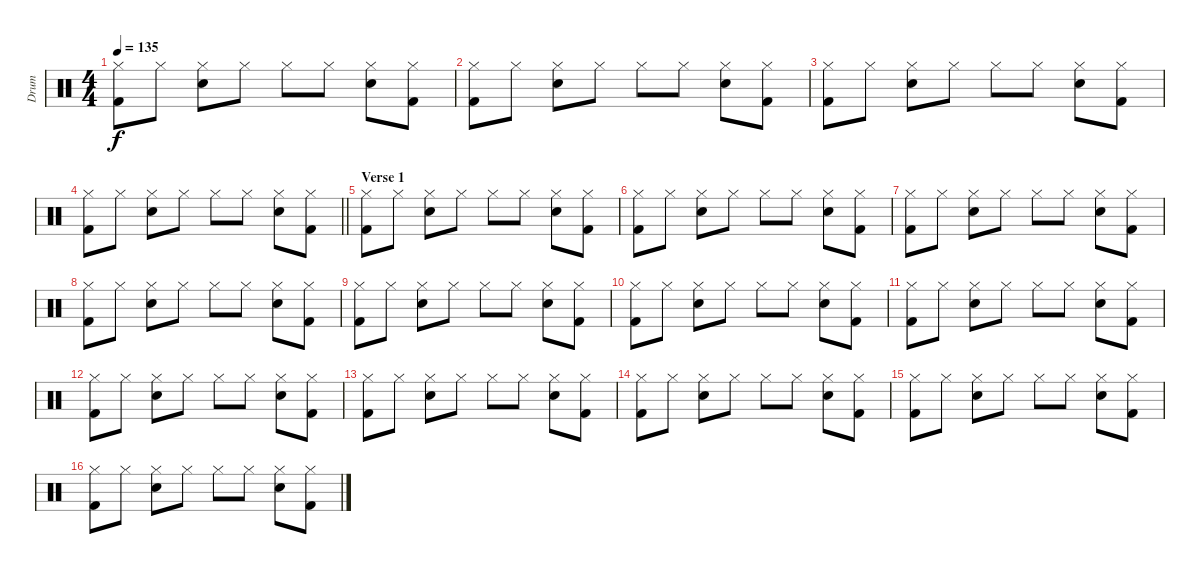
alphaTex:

\track ("Drum" "Drum") {instrument percussion}
\staff {score}
\articulation defaults
\ts (4 4)
\tempo 135
\clef neutral
\ks c
("Hi-Hat (closed)" "Kick (hit) 2").8{dy f} "Hi-Hat (closed)".8 ("Snare (hit) 2" "Hi-Hat (closed)").8 "Hi-Hat (closed)".8 "Hi-Hat (closed)".8 "Hi-Hat (closed)".8 ("Snare (hit) 2" "Hi-Hat (closed)").8 ("Hi-Hat (closed)" "Kick (hit) 2").8 |
("Hi-Hat (closed)" "Kick (hit) 2").8 "Hi-Hat (closed)".8 ("Snare (hit) 2" "Hi-Hat (closed)").8 "Hi-Hat (closed)".8 "Hi-Hat (closed)".8 "Hi-Hat (closed)".8 ("Snare (hit) 2" "Hi-Hat (closed)").8 ("Hi-Hat (closed)" "Kick (hit) 2").8 |
("Hi-Hat (closed)" "Kick (hit) 2").8 "Hi-Hat (closed)".8 ("Snare (hit) 2" "Hi-Hat (closed)").8 "Hi-Hat (closed)".8 "Hi-Hat (closed)".8 "Hi-Hat (closed)".8 ("Snare (hit) 2" "Hi-Hat (closed)").8 ("Hi-Hat (closed)" "Kick (hit) 2").8 |
\barLineRight lightlight
("Hi-Hat (closed)" "Kick (hit) 2").8 "Hi-Hat (closed)".8 ("Snare (hit) 2" "Hi-Hat (closed)").8 "Hi-Hat (closed)".8 "Hi-Hat (closed)".8 "Hi-Hat (closed)".8 ("Snare (hit) 2" "Hi-Hat (closed)").8 ("Hi-Hat (closed)" "Kick (hit) 2").8 |
\section ("" "Verse 1")
("Hi-Hat (closed)" "Kick (hit) 2").8 "Hi-Hat (closed)".8 ("Snare (hit) 2" "Hi-Hat (closed)").8 "Hi-Hat (closed)".8 "Hi-Hat (closed)".8 "Hi-Hat (closed)".8 ("Snare (hit) 2" "Hi-Hat (closed)").8 ("Hi-Hat (closed)" "Kick (hit) 2").8 |
("Hi-Hat (closed)" "Kick (hit) 2").8 "Hi-Hat (closed)".8 ("Snare (hit) 2" "Hi-Hat (closed)").8 "Hi-Hat (closed)".8 "Hi-Hat (closed)".8 "Hi-Hat (closed)".8 ("Snare (hit) 2" "Hi-Hat (closed)").8 ("Hi-Hat (closed)" "Kick (hit) 2").8 |
("Hi-Hat (closed)" "Kick (hit) 2").8 "Hi-Hat (closed)".8 ("Snare (hit) 2" "Hi-Hat (closed)").8 "Hi-Hat (closed)".8 "Hi-Hat (closed)".8 "Hi-Hat (closed)".8 ("Snare (hit) 2" "Hi-Hat (closed)").8 ("Hi-Hat (closed)" "Kick (hit) 2").8 |
("Hi-Hat (closed)" "Kick (hit) 2").8 "Hi-Hat (closed)".8 ("Snare (hit) 2" "Hi-Hat (closed)").8 "Hi-Hat (closed)".8 "Hi-Hat (closed)".8 "Hi-Hat (closed)".8 ("Snare (hit) 2" "Hi-Hat (closed)").8 ("Hi-Hat (closed)" "Kick (hit) 2").8 |
("Hi-Hat (closed)" "Kick (hit) 2").8 "Hi-Hat (closed)".8 ("Snare (hit) 2" "Hi-Hat (closed)").8 "Hi-Hat (closed)".8 "Hi-Hat (closed)".8 "Hi-Hat (closed)".8 ("Snare (hit) 2" "Hi-Hat (closed)").8 ("Hi-Hat (closed)" "Kick (hit) 2").8 |
("Hi-Hat (closed)" "Kick (hit) 2").8 "Hi-Hat (closed)".8 ("Snare (hit) 2" "Hi-Hat (closed)").8 "Hi-Hat (closed)".8 "Hi-Hat (closed)".8 "Hi-Hat (closed)".8 ("Snare (hit) 2" "Hi-Hat (closed)").8 ("Hi-Hat (closed)" "Kick (hit) 2").8 |
("Hi-Hat (closed)" "Kick (hit) 2").8 "Hi-Hat (closed)".8 ("Snare (hit) 2" "Hi-Hat (closed)").8 "Hi-Hat (closed)".8 "Hi-Hat (closed)".8 "Hi-Hat (closed)".8 ("Snare (hit) 2" "Hi-Hat (closed)").8 ("Hi-Hat (closed)" "Kick (hit) 2").8 |
("Hi-Hat (closed)" "Kick (hit) 2").8 "Hi-Hat (closed)".8 ("Snare (hit) 2" "Hi-Hat (closed)").8 "Hi-Hat (closed)".8 "Hi-Hat (closed)".8 "Hi-Hat (closed)".8 ("Snare (hit) 2" "Hi-Hat (closed)").8 ("Hi-Hat (closed)" "Kick (hit) 2").8 |
("Hi-Hat (closed)" "Kick (hit) 2").8 "Hi-Hat (closed)".8 ("Snare (hit) 2" "Hi-Hat (closed)").8 "Hi-Hat (closed)".8 "Hi-Hat (closed)".8 "Hi-Hat (closed)".8 ("Snare (hit) 2" "Hi-Hat (closed)").8 ("Hi-Hat (closed)" "Kick (hit) 2").8 |
("Hi-Hat (closed)" "Kick (hit) 2").8 "Hi-Hat (closed)".8 ("Snare (hit) 2" "Hi-Hat (closed)").8 "Hi-Hat (closed)".8 "Hi-Hat (closed)".8 "Hi-Hat (closed)".8 ("Snare (hit) 2" "Hi-Hat (closed)").8 ("Hi-Hat (closed)" "Kick (hit) 2").8 |
("Hi-Hat (closed)" "Kick (hit) 2").8 "Hi-Hat (closed)".8 ("Snare (hit) 2" "Hi-Hat (closed)").8 "Hi-Hat (closed)".8 "Hi-Hat (closed)".8 "Hi-Hat (closed)".8 ("Snare (hit) 2" "Hi-Hat (closed)").8 ("Hi-Hat (closed)" "Kick (hit) 2").8 |
("Hi-Hat (closed)" "Kick (hit) 2").8 "Hi-Hat (closed)".8 ("Snare (hit) 2" "Hi-Hat (closed)").8 "Hi-Hat (closed)".8 "Hi-Hat (closed)".8 "Hi-Hat (closed)".8 ("Snare (hit) 2" "Hi-Hat (closed)").8 ("Hi-Hat (closed)" "Kick (hit) 2").8
